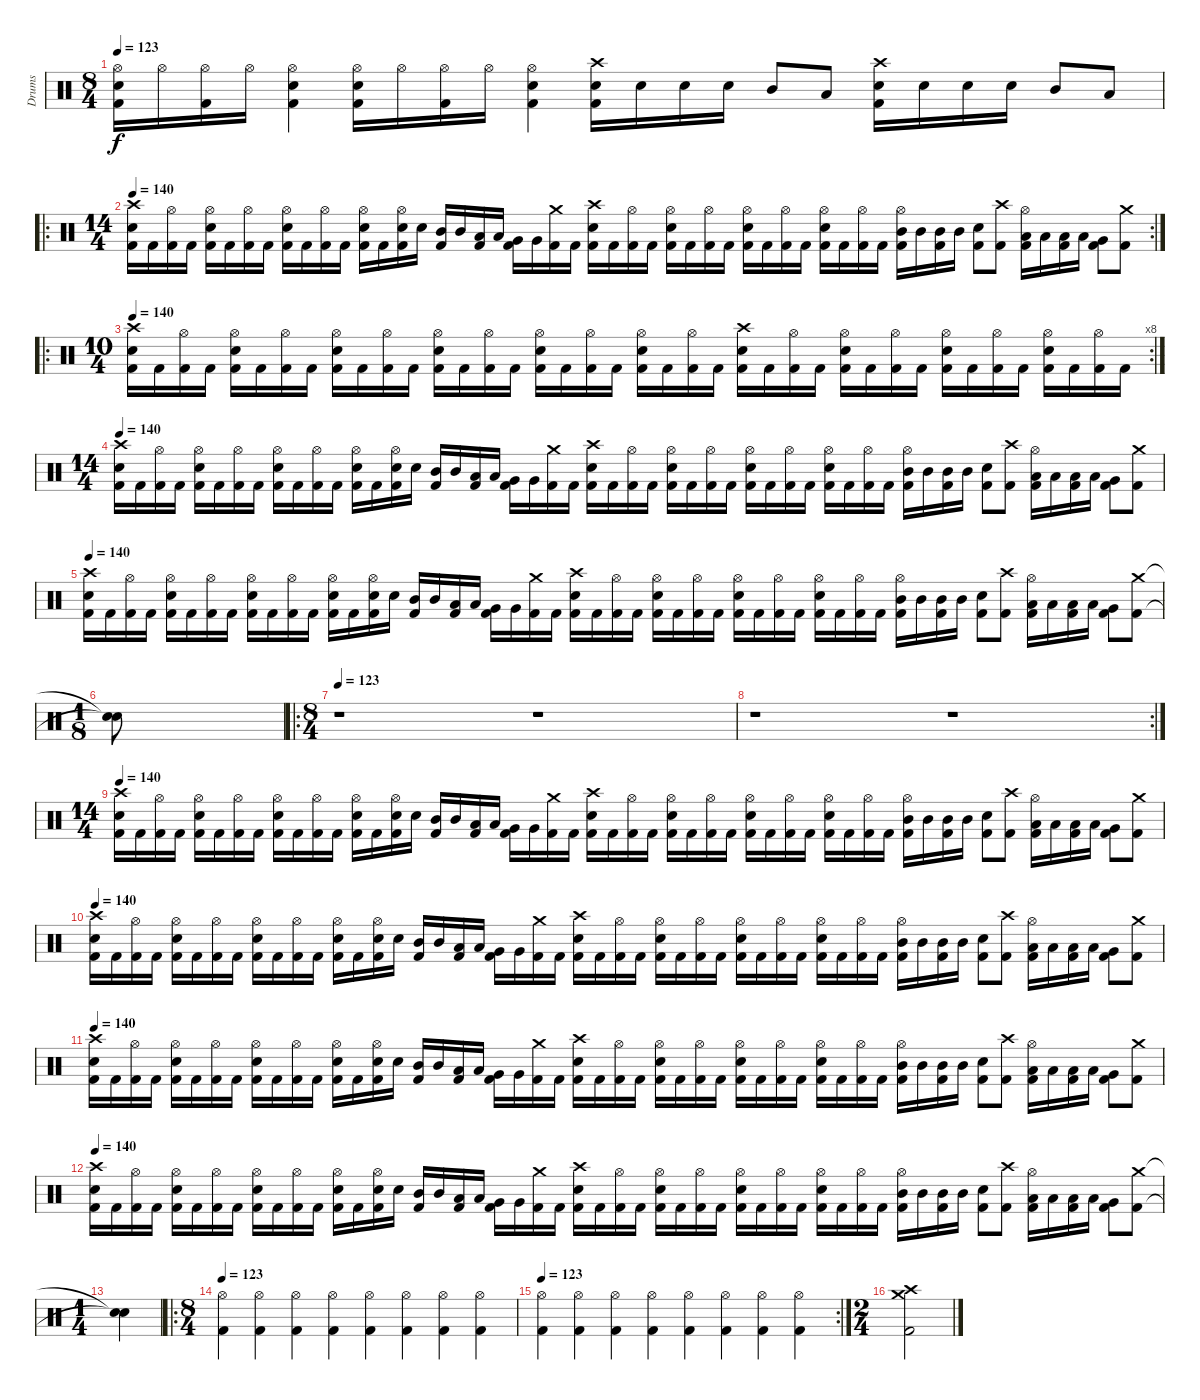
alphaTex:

\track ("Drums" "Drums") {instrument percussion}
\staff {score}
\articulation defaults
\ts (8 4)
\tempo 123
\clef neutral
\ks c
("Hi-Hat (open)" "Electric Snare (hit)" "Kick (hit) 2").16{dy f} "Hi-Hat (open)".16 ("Hi-Hat (open)" "Kick (hit) 2").16 "Hi-Hat (open)".16 ("Hi-Hat (open)" "Electric Snare (hit)" "Kick (hit) 2").4 ("Hi-Hat (open)" "Electric Snare (hit)" "Kick (hit) 2").16 "Hi-Hat (open)".16 ("Hi-Hat (open)" "Kick (hit) 2").16 "Hi-Hat (open)".16 ("Hi-Hat (open)" "Electric Snare (hit)" "Kick (hit) 2").4 ("Crash high (hit)" "Electric Snare (hit)" "Kick (hit) 2").16 "Electric Snare (hit)".16 "Electric Snare (hit)".16 "Electric Snare (hit)".16 "Mid Tom (hit)".8 "Low Tom (hit)".8 ("Crash high (hit)" "Electric Snare (hit)" "Kick (hit) 2").16 "Electric Snare (hit)".16 "Electric Snare (hit)".16 "Electric Snare (hit)".16 "Mid Tom (hit)".8 "Low Tom (hit)".8 |
\ro
\rc 2
\ts (14 4)
\tempo 140
("Crash high (hit)" "Electric Snare (hit)" "Kick (hit) 2").16 "Kick (hit) 2".16 ("Hi-Hat (open)" "Kick (hit) 2").16 "Kick (hit) 2".16 ("Hi-Hat (open)" "Electric Snare (hit)" "Kick (hit) 2").16 "Kick (hit) 2".16 ("Hi-Hat (open)" "Kick (hit) 2").16 "Kick (hit) 2".16 ("Hi-Hat (open)" "Electric Snare (hit)" "Kick (hit) 2").16 "Kick (hit) 2".16 ("Hi-Hat (open)" "Kick (hit) 2").16 "Kick (hit) 2".16 ("Hi-Hat (open)" "Electric Snare (hit)" "Kick (hit) 2").16 "Kick (hit) 2".16 ("Hi-Hat (open)" "Electric Snare (hit)" "Kick (hit) 2").16 "Electric Snare (hit)".16 ("Mid Tom (hit)" "Kick (hit) 2").16 "Mid Tom (hit)".16 ("Low Tom (hit)" "Kick (hit) 2").16 "Low Tom (hit)".16 ("Very Low Tom (hit)" "Kick (hit) 2").16 "Very Low Tom (hit)".16 ("Crash medium (hit)" "Kick (hit) 2").16 "Kick (hit) 2".16 ("Crash high (hit)" "Electric Snare (hit)" "Kick (hit) 2").16 "Kick (hit) 2".16 ("Hi-Hat (open)" "Kick (hit) 2").16 "Kick (hit) 2".16 ("Hi-Hat (open)" "Electric Snare (hit)" "Kick (hit) 2").16 "Kick (hit) 2".16 ("Hi-Hat (open)" "Kick (hit) 2").16 "Kick (hit) 2".16 ("Hi-Hat (open)" "Electric Snare (hit)" "Kick (hit) 2").16 "Kick (hit) 2".16 ("Hi-Hat (open)" "Kick (hit) 2").16 "Kick (hit) 2".16 ("Hi-Hat (open)" "Electric Snare (hit)" "Kick (hit) 2").16 "Kick (hit) 2".16 ("Hi-Hat (open)" "Kick (hit) 2").16 "Kick (hit) 2".16 ("Hi-Hat (open)" "Mid Tom (hit)" "Kick (hit) 2").16 "Mid Tom (hit)".16 ("Mid Tom (hit)" "Kick (hit) 2").16 "Mid Tom (hit)".16 ("Electric Snare (hit)" "Kick (hit) 2").8 ("Crash high (hit)" "Kick (hit) 2").8 ("Hi-Hat (open)" "Low Tom (hit)" "Kick (hit) 2").16 "Low Tom (hit)".16 ("Low Tom (hit)" "Kick (hit) 2").16 "Low Tom (hit)".16 ("Very Low Tom (hit)" "Kick (hit) 2").8 ("Crash medium (hit)" "Kick (hit) 2").8 |
\ro
\rc 8
\ts (10 4)
\tempo 140
("Crash high (hit)" "Electric Snare (hit)" "Kick (hit) 2").16 "Kick (hit) 2".16 ("Hi-Hat (open)" "Kick (hit) 2").16 "Kick (hit) 2".16 ("Hi-Hat (open)" "Electric Snare (hit)" "Kick (hit) 2").16 "Kick (hit) 2".16 ("Hi-Hat (open)" "Kick (hit) 2").16 "Kick (hit) 2".16 ("Hi-Hat (open)" "Electric Snare (hit)" "Kick (hit) 2").16 "Kick (hit) 2".16 ("Hi-Hat (open)" "Kick (hit) 2").16 "Kick (hit) 2".16 ("Hi-Hat (open)" "Electric Snare (hit)" "Kick (hit) 2").16 "Kick (hit) 2".16 ("Hi-Hat (open)" "Kick (hit) 2").16 "Kick (hit) 2".16 ("Hi-Hat (open)" "Electric Snare (hit)" "Kick (hit) 2").16 "Kick (hit) 2".16 ("Hi-Hat (open)" "Kick (hit) 2").16 "Kick (hit) 2".16 ("Hi-Hat (open)" "Electric Snare (hit)" "Kick (hit) 2").16 "Kick (hit) 2".16 ("Hi-Hat (open)" "Kick (hit) 2").16 "Kick (hit) 2".16 ("Crash high (hit)" "Electric Snare (hit)" "Kick (hit) 2").16 "Kick (hit) 2".16 ("Hi-Hat (open)" "Kick (hit) 2").16 "Kick (hit) 2".16 ("Hi-Hat (open)" "Electric Snare (hit)" "Kick (hit) 2").16 "Kick (hit) 2".16 ("Hi-Hat (open)" "Kick (hit) 2").16 "Kick (hit) 2".16 ("Hi-Hat (open)" "Electric Snare (hit)" "Kick (hit) 2").16 "Kick (hit) 2".16 ("Hi-Hat (open)" "Kick (hit) 2").16 "Kick (hit) 2".16 ("Hi-Hat (open)" "Electric Snare (hit)" "Kick (hit) 2").16 "Kick (hit) 2".16 ("Hi-Hat (open)" "Kick (hit) 2").16 "Kick (hit) 2".16 |
\ts (14 4)
\tempo 140
("Crash high (hit)" "Electric Snare (hit)" "Kick (hit) 2").16 "Kick (hit) 2".16 ("Hi-Hat (open)" "Kick (hit) 2").16 "Kick (hit) 2".16 ("Hi-Hat (open)" "Electric Snare (hit)" "Kick (hit) 2").16 "Kick (hit) 2".16 ("Hi-Hat (open)" "Kick (hit) 2").16 "Kick (hit) 2".16 ("Hi-Hat (open)" "Electric Snare (hit)" "Kick (hit) 2").16 "Kick (hit) 2".16 ("Hi-Hat (open)" "Kick (hit) 2").16 "Kick (hit) 2".16 ("Hi-Hat (open)" "Electric Snare (hit)" "Kick (hit) 2").16 "Kick (hit) 2".16 ("Hi-Hat (open)" "Electric Snare (hit)" "Kick (hit) 2").16 "Electric Snare (hit)".16 ("Mid Tom (hit)" "Kick (hit) 2").16 "Mid Tom (hit)".16 ("Low Tom (hit)" "Kick (hit) 2").16 "Low Tom (hit)".16 ("Very Low Tom (hit)" "Kick (hit) 2").16 "Very Low Tom (hit)".16 ("Crash medium (hit)" "Kick (hit) 2").16 "Kick (hit) 2".16 ("Crash high (hit)" "Electric Snare (hit)" "Kick (hit) 2").16 "Kick (hit) 2".16 ("Hi-Hat (open)" "Kick (hit) 2").16 "Kick (hit) 2".16 ("Hi-Hat (open)" "Electric Snare (hit)" "Kick (hit) 2").16 "Kick (hit) 2".16 ("Hi-Hat (open)" "Kick (hit) 2").16 "Kick (hit) 2".16 ("Hi-Hat (open)" "Electric Snare (hit)" "Kick (hit) 2").16 "Kick (hit) 2".16 ("Hi-Hat (open)" "Kick (hit) 2").16 "Kick (hit) 2".16 ("Hi-Hat (open)" "Electric Snare (hit)" "Kick (hit) 2").16 "Kick (hit) 2".16 ("Hi-Hat (open)" "Kick (hit) 2").16 "Kick (hit) 2".16 ("Hi-Hat (open)" "Mid Tom (hit)" "Kick (hit) 2").16 "Mid Tom (hit)".16 ("Mid Tom (hit)" "Kick (hit) 2").16 "Mid Tom (hit)".16 ("Electric Snare (hit)" "Kick (hit) 2").8 ("Crash high (hit)" "Kick (hit) 2").8 ("Hi-Hat (open)" "Low Tom (hit)" "Kick (hit) 2").16 "Low Tom (hit)".16 ("Low Tom (hit)" "Kick (hit) 2").16 "Low Tom (hit)".16 ("Very Low Tom (hit)" "Kick (hit) 2").8 ("Crash medium (hit)" "Kick (hit) 2").8 |
\tempo 140
("Crash high (hit)" "Electric Snare (hit)" "Kick (hit) 2").16 "Kick (hit) 2".16 ("Hi-Hat (open)" "Kick (hit) 2").16 "Kick (hit) 2".16 ("Hi-Hat (open)" "Electric Snare (hit)" "Kick (hit) 2").16 "Kick (hit) 2".16 ("Hi-Hat (open)" "Kick (hit) 2").16 "Kick (hit) 2".16 ("Hi-Hat (open)" "Electric Snare (hit)" "Kick (hit) 2").16 "Kick (hit) 2".16 ("Hi-Hat (open)" "Kick (hit) 2").16 "Kick (hit) 2".16 ("Hi-Hat (open)" "Electric Snare (hit)" "Kick (hit) 2").16 "Kick (hit) 2".16 ("Hi-Hat (open)" "Electric Snare (hit)" "Kick (hit) 2").16 "Electric Snare (hit)".16 ("Mid Tom (hit)" "Kick (hit) 2").16 "Mid Tom (hit)".16 ("Low Tom (hit)" "Kick (hit) 2").16 "Low Tom (hit)".16 ("Very Low Tom (hit)" "Kick (hit) 2").16 "Very Low Tom (hit)".16 ("Crash medium (hit)" "Kick (hit) 2").16 "Kick (hit) 2".16 ("Crash high (hit)" "Electric Snare (hit)" "Kick (hit) 2").16 "Kick (hit) 2".16 ("Hi-Hat (open)" "Kick (hit) 2").16 "Kick (hit) 2".16 ("Hi-Hat (open)" "Electric Snare (hit)" "Kick (hit) 2").16 "Kick (hit) 2".16 ("Hi-Hat (open)" "Kick (hit) 2").16 "Kick (hit) 2".16 ("Hi-Hat (open)" "Electric Snare (hit)" "Kick (hit) 2").16 "Kick (hit) 2".16 ("Hi-Hat (open)" "Kick (hit) 2").16 "Kick (hit) 2".16 ("Hi-Hat (open)" "Electric Snare (hit)" "Kick (hit) 2").16 "Kick (hit) 2".16 ("Hi-Hat (open)" "Kick (hit) 2").16 "Kick (hit) 2".16 ("Hi-Hat (open)" "Mid Tom (hit)" "Kick (hit) 2").16 "Mid Tom (hit)".16 ("Mid Tom (hit)" "Kick (hit) 2").16 "Mid Tom (hit)".16 ("Electric Snare (hit)" "Kick (hit) 2").8 ("Crash high (hit)" "Kick (hit) 2").8 ("Hi-Hat (open)" "Low Tom (hit)" "Kick (hit) 2").16 "Low Tom (hit)".16 ("Low Tom (hit)" "Kick (hit) 2").16 "Low Tom (hit)".16 ("Very Low Tom (hit)" "Kick (hit) 2").8 ("Crash medium (hit)" "Kick (hit) 2").8 |
\ts (1 8)
("Snare (hit)"{t} "Snare (hit)"{t}).8 |
\ro
\ts (8 4)
\tempo 123
r.1 r.1 |
\rc 2
r.1 r.1 |
\ts (14 4)
\tempo 140
("Crash high (hit)" "Electric Snare (hit)" "Kick (hit) 2").16 "Kick (hit) 2".16 ("Hi-Hat (open)" "Kick (hit) 2").16 "Kick (hit) 2".16 ("Hi-Hat (open)" "Electric Snare (hit)" "Kick (hit) 2").16 "Kick (hit) 2".16 ("Hi-Hat (open)" "Kick (hit) 2").16 "Kick (hit) 2".16 ("Hi-Hat (open)" "Electric Snare (hit)" "Kick (hit) 2").16 "Kick (hit) 2".16 ("Hi-Hat (open)" "Kick (hit) 2").16 "Kick (hit) 2".16 ("Hi-Hat (open)" "Electric Snare (hit)" "Kick (hit) 2").16 "Kick (hit) 2".16 ("Hi-Hat (open)" "Electric Snare (hit)" "Kick (hit) 2").16 "Electric Snare (hit)".16 ("Mid Tom (hit)" "Kick (hit) 2").16 "Mid Tom (hit)".16 ("Low Tom (hit)" "Kick (hit) 2").16 "Low Tom (hit)".16 ("Very Low Tom (hit)" "Kick (hit) 2").16 "Very Low Tom (hit)".16 ("Crash medium (hit)" "Kick (hit) 2").16 "Kick (hit) 2".16 ("Crash high (hit)" "Electric Snare (hit)" "Kick (hit) 2").16 "Kick (hit) 2".16 ("Hi-Hat (open)" "Kick (hit) 2").16 "Kick (hit) 2".16 ("Hi-Hat (open)" "Electric Snare (hit)" "Kick (hit) 2").16 "Kick (hit) 2".16 ("Hi-Hat (open)" "Kick (hit) 2").16 "Kick (hit) 2".16 ("Hi-Hat (open)" "Electric Snare (hit)" "Kick (hit) 2").16 "Kick (hit) 2".16 ("Hi-Hat (open)" "Kick (hit) 2").16 "Kick (hit) 2".16 ("Hi-Hat (open)" "Electric Snare (hit)" "Kick (hit) 2").16 "Kick (hit) 2".16 ("Hi-Hat (open)" "Kick (hit) 2").16 "Kick (hit) 2".16 ("Hi-Hat (open)" "Mid Tom (hit)" "Kick (hit) 2").16 "Mid Tom (hit)".16 ("Mid Tom (hit)" "Kick (hit) 2").16 "Mid Tom (hit)".16 ("Electric Snare (hit)" "Kick (hit) 2").8 ("Crash high (hit)" "Kick (hit) 2").8 ("Hi-Hat (open)" "Low Tom (hit)" "Kick (hit) 2").16 "Low Tom (hit)".16 ("Low Tom (hit)" "Kick (hit) 2").16 "Low Tom (hit)".16 ("Very Low Tom (hit)" "Kick (hit) 2").8 ("Crash medium (hit)" "Kick (hit) 2").8 |
\tempo 140
("Crash high (hit)" "Electric Snare (hit)" "Kick (hit) 2").16 "Kick (hit) 2".16 ("Hi-Hat (open)" "Kick (hit) 2").16 "Kick (hit) 2".16 ("Hi-Hat (open)" "Electric Snare (hit)" "Kick (hit) 2").16 "Kick (hit) 2".16 ("Hi-Hat (open)" "Kick (hit) 2").16 "Kick (hit) 2".16 ("Hi-Hat (open)" "Electric Snare (hit)" "Kick (hit) 2").16 "Kick (hit) 2".16 ("Hi-Hat (open)" "Kick (hit) 2").16 "Kick (hit) 2".16 ("Hi-Hat (open)" "Electric Snare (hit)" "Kick (hit) 2").16 "Kick (hit) 2".16 ("Hi-Hat (open)" "Electric Snare (hit)" "Kick (hit) 2").16 "Electric Snare (hit)".16 ("Mid Tom (hit)" "Kick (hit) 2").16 "Mid Tom (hit)".16 ("Low Tom (hit)" "Kick (hit) 2").16 "Low Tom (hit)".16 ("Very Low Tom (hit)" "Kick (hit) 2").16 "Very Low Tom (hit)".16 ("Crash medium (hit)" "Kick (hit) 2").16 "Kick (hit) 2".16 ("Crash high (hit)" "Electric Snare (hit)" "Kick (hit) 2").16 "Kick (hit) 2".16 ("Hi-Hat (open)" "Kick (hit) 2").16 "Kick (hit) 2".16 ("Hi-Hat (open)" "Electric Snare (hit)" "Kick (hit) 2").16 "Kick (hit) 2".16 ("Hi-Hat (open)" "Kick (hit) 2").16 "Kick (hit) 2".16 ("Hi-Hat (open)" "Electric Snare (hit)" "Kick (hit) 2").16 "Kick (hit) 2".16 ("Hi-Hat (open)" "Kick (hit) 2").16 "Kick (hit) 2".16 ("Hi-Hat (open)" "Electric Snare (hit)" "Kick (hit) 2").16 "Kick (hit) 2".16 ("Hi-Hat (open)" "Kick (hit) 2").16 "Kick (hit) 2".16 ("Hi-Hat (open)" "Mid Tom (hit)" "Kick (hit) 2").16 "Mid Tom (hit)".16 ("Mid Tom (hit)" "Kick (hit) 2").16 "Mid Tom (hit)".16 ("Electric Snare (hit)" "Kick (hit) 2").8 ("Crash high (hit)" "Kick (hit) 2").8 ("Hi-Hat (open)" "Low Tom (hit)" "Kick (hit) 2").16 "Low Tom (hit)".16 ("Low Tom (hit)" "Kick (hit) 2").16 "Low Tom (hit)".16 ("Very Low Tom (hit)" "Kick (hit) 2").8 ("Crash medium (hit)" "Kick (hit) 2").8 |
\tempo 140
("Crash high (hit)" "Electric Snare (hit)" "Kick (hit) 2").16 "Kick (hit) 2".16 ("Hi-Hat (open)" "Kick (hit) 2").16 "Kick (hit) 2".16 ("Hi-Hat (open)" "Electric Snare (hit)" "Kick (hit) 2").16 "Kick (hit) 2".16 ("Hi-Hat (open)" "Kick (hit) 2").16 "Kick (hit) 2".16 ("Hi-Hat (open)" "Electric Snare (hit)" "Kick (hit) 2").16 "Kick (hit) 2".16 ("Hi-Hat (open)" "Kick (hit) 2").16 "Kick (hit) 2".16 ("Hi-Hat (open)" "Electric Snare (hit)" "Kick (hit) 2").16 "Kick (hit) 2".16 ("Hi-Hat (open)" "Electric Snare (hit)" "Kick (hit) 2").16 "Electric Snare (hit)".16 ("Mid Tom (hit)" "Kick (hit) 2").16 "Mid Tom (hit)".16 ("Low Tom (hit)" "Kick (hit) 2").16 "Low Tom (hit)".16 ("Very Low Tom (hit)" "Kick (hit) 2").16 "Very Low Tom (hit)".16 ("Crash medium (hit)" "Kick (hit) 2").16 "Kick (hit) 2".16 ("Crash high (hit)" "Electric Snare (hit)" "Kick (hit) 2").16 "Kick (hit) 2".16 ("Hi-Hat (open)" "Kick (hit) 2").16 "Kick (hit) 2".16 ("Hi-Hat (open)" "Electric Snare (hit)" "Kick (hit) 2").16 "Kick (hit) 2".16 ("Hi-Hat (open)" "Kick (hit) 2").16 "Kick (hit) 2".16 ("Hi-Hat (open)" "Electric Snare (hit)" "Kick (hit) 2").16 "Kick (hit) 2".16 ("Hi-Hat (open)" "Kick (hit) 2").16 "Kick (hit) 2".16 ("Hi-Hat (open)" "Electric Snare (hit)" "Kick (hit) 2").16 "Kick (hit) 2".16 ("Hi-Hat (open)" "Kick (hit) 2").16 "Kick (hit) 2".16 ("Hi-Hat (open)" "Mid Tom (hit)" "Kick (hit) 2").16 "Mid Tom (hit)".16 ("Mid Tom (hit)" "Kick (hit) 2").16 "Mid Tom (hit)".16 ("Electric Snare (hit)" "Kick (hit) 2").8 ("Crash high (hit)" "Kick (hit) 2").8 ("Hi-Hat (open)" "Low Tom (hit)" "Kick (hit) 2").16 "Low Tom (hit)".16 ("Low Tom (hit)" "Kick (hit) 2").16 "Low Tom (hit)".16 ("Very Low Tom (hit)" "Kick (hit) 2").8 ("Crash medium (hit)" "Kick (hit) 2").8 |
\tempo 140
("Crash high (hit)" "Electric Snare (hit)" "Kick (hit) 2").16 "Kick (hit) 2".16 ("Hi-Hat (open)" "Kick (hit) 2").16 "Kick (hit) 2".16 ("Hi-Hat (open)" "Electric Snare (hit)" "Kick (hit) 2").16 "Kick (hit) 2".16 ("Hi-Hat (open)" "Kick (hit) 2").16 "Kick (hit) 2".16 ("Hi-Hat (open)" "Electric Snare (hit)" "Kick (hit) 2").16 "Kick (hit) 2".16 ("Hi-Hat (open)" "Kick (hit) 2").16 "Kick (hit) 2".16 ("Hi-Hat (open)" "Electric Snare (hit)" "Kick (hit) 2").16 "Kick (hit) 2".16 ("Hi-Hat (open)" "Electric Snare (hit)" "Kick (hit) 2").16 "Electric Snare (hit)".16 ("Mid Tom (hit)" "Kick (hit) 2").16 "Mid Tom (hit)".16 ("Low Tom (hit)" "Kick (hit) 2").16 "Low Tom (hit)".16 ("Very Low Tom (hit)" "Kick (hit) 2").16 "Very Low Tom (hit)".16 ("Crash medium (hit)" "Kick (hit) 2").16 "Kick (hit) 2".16 ("Crash high (hit)" "Electric Snare (hit)" "Kick (hit) 2").16 "Kick (hit) 2".16 ("Hi-Hat (open)" "Kick (hit) 2").16 "Kick (hit) 2".16 ("Hi-Hat (open)" "Electric Snare (hit)" "Kick (hit) 2").16 "Kick (hit) 2".16 ("Hi-Hat (open)" "Kick (hit) 2").16 "Kick (hit) 2".16 ("Hi-Hat (open)" "Electric Snare (hit)" "Kick (hit) 2").16 "Kick (hit) 2".16 ("Hi-Hat (open)" "Kick (hit) 2").16 "Kick (hit) 2".16 ("Hi-Hat (open)" "Electric Snare (hit)" "Kick (hit) 2").16 "Kick (hit) 2".16 ("Hi-Hat (open)" "Kick (hit) 2").16 "Kick (hit) 2".16 ("Hi-Hat (open)" "Mid Tom (hit)" "Kick (hit) 2").16 "Mid Tom (hit)".16 ("Mid Tom (hit)" "Kick (hit) 2").16 "Mid Tom (hit)".16 ("Electric Snare (hit)" "Kick (hit) 2").8 ("Crash high (hit)" "Kick (hit) 2").8 ("Hi-Hat (open)" "Low Tom (hit)" "Kick (hit) 2").16 "Low Tom (hit)".16 ("Low Tom (hit)" "Kick (hit) 2").16 "Low Tom (hit)".16 ("Very Low Tom (hit)" "Kick (hit) 2").8 ("Crash medium (hit)" "Kick (hit) 2").8 |
\ts (1 4)
("Snare (hit)"{t} "Snare (hit)"{t}).4 |
\ro
\ts (8 4)
\tempo 123
("Hi-Hat (open)" "Kick (hit) 2").4 ("Hi-Hat (open)" "Kick (hit) 2").4 ("Hi-Hat (open)" "Kick (hit) 2").4 ("Hi-Hat (open)" "Kick (hit) 2").4 ("Hi-Hat (open)" "Kick (hit) 2").4 ("Hi-Hat (open)" "Kick (hit) 2").4 ("Hi-Hat (open)" "Kick (hit) 2").4 ("Hi-Hat (open)" "Kick (hit) 2").4 |
\rc 2
\tempo 123
("Hi-Hat (open)" "Kick (hit) 2").4 ("Hi-Hat (open)" "Kick (hit) 2").4 ("Hi-Hat (open)" "Kick (hit) 2").4 ("Hi-Hat (open)" "Kick (hit) 2").4 ("Hi-Hat (open)" "Kick (hit) 2").4 ("Hi-Hat (open)" "Kick (hit) 2").4 ("Hi-Hat (open)" "Kick (hit) 2").4 ("Hi-Hat (open)" "Kick (hit) 2").4 |
\ts (2 4)
("Crash medium (hit)" "Crash high (hit)" "Kick (hit) 2").2
